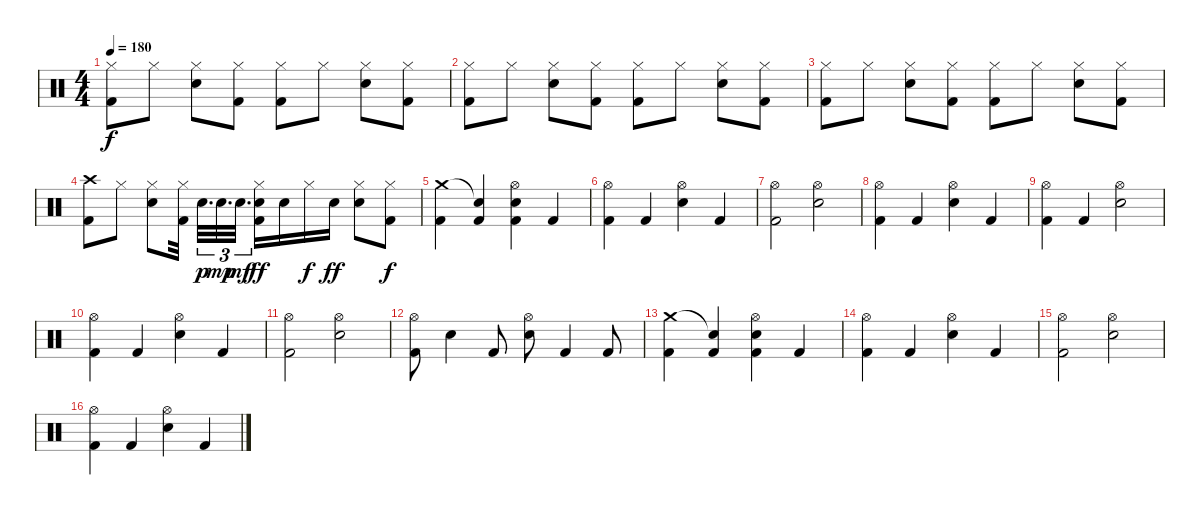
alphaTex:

\track (" " " ") {instrument percussion}
\staff {score}
\articulation defaults
\ts (4 4)
\tempo 180
\clef neutral
\ks c
("Hi-Hat (closed)" "Kick (hit) 2").8{dy f} "Hi-Hat (closed)".8 ("Hi-Hat (closed)" "Electric Snare (hit)").8 ("Hi-Hat (closed)" "Kick (hit) 2").8 ("Hi-Hat (closed)" "Kick (hit) 2").8 "Hi-Hat (closed)".8 ("Hi-Hat (closed)" "Electric Snare (hit)").8 ("Hi-Hat (closed)" "Kick (hit) 2").8 |
("Hi-Hat (closed)" "Kick (hit) 2").8 "Hi-Hat (closed)".8 ("Hi-Hat (closed)" "Electric Snare (hit)").8 ("Hi-Hat (closed)" "Kick (hit) 2").8 ("Hi-Hat (closed)" "Kick (hit) 2").8 "Hi-Hat (closed)".8 ("Hi-Hat (closed)" "Electric Snare (hit)").8 ("Hi-Hat (closed)" "Kick (hit) 2").8 |
("Hi-Hat (closed)" "Kick (hit) 2").8 "Hi-Hat (closed)".8 ("Hi-Hat (closed)" "Electric Snare (hit)").8 ("Hi-Hat (closed)" "Kick (hit) 2").8 ("Hi-Hat (closed)" "Kick (hit) 2").8 "Hi-Hat (closed)".8 ("Hi-Hat (closed)" "Electric Snare (hit)").8 ("Hi-Hat (closed)" "Kick (hit) 2").8 |
("Crash high (hit)" "Kick (hit) 2").8 "Hi-Hat (closed)".8 ("Hi-Hat (closed)" "Electric Snare (hit)").8 ("Hi-Hat (closed)" "Kick (hit) 2").32{beam splitsecondary} "Electric Snare (hit)".32{d tu (3 2) dy p} "Electric Snare (hit)".32{d tu (3 2) dy mp} "Electric Snare (hit)".32{d tu (3 2) dy mf} ("Hi-Hat (closed)" "Electric Snare (hit)" "Kick (hit) 2").16{dy ff} "Electric Snare (hit)".16 "Hi-Hat (closed)".16{dy f} "Electric Snare (hit)".16{dy ff} ("Hi-Hat (closed)" "Electric Snare (hit)").8 ("Hi-Hat (closed)" "Kick (hit) 2").8{dy f} |
("Crash medium (hit)" "Kick (hit) 2").4 ("Snare (hit)"{t} "Kick (hit) 2").4 ("Hi-Hat (open)" "Electric Snare (hit)" "Kick (hit) 2").4 "Kick (hit) 2".4 |
("Hi-Hat (open)" "Kick (hit) 2").4 "Kick (hit) 2".4 ("Hi-Hat (open)" "Electric Snare (hit)").4 "Kick (hit) 2".4 |
("Hi-Hat (open)" "Kick (hit) 2").2 ("Hi-Hat (open)" "Electric Snare (hit)").2 |
("Hi-Hat (open)" "Kick (hit) 2").4 "Kick (hit) 2".4 ("Hi-Hat (open)" "Electric Snare (hit)").4 "Kick (hit) 2".4 |
("Hi-Hat (open)" "Kick (hit) 2").4 "Kick (hit) 2".4 ("Hi-Hat (open)" "Electric Snare (hit)").2 |
("Hi-Hat (open)" "Kick (hit) 2").4 "Kick (hit) 2".4 ("Hi-Hat (open)" "Electric Snare (hit)").4 "Kick (hit) 2".4 |
("Hi-Hat (open)" "Kick (hit) 2").2 ("Hi-Hat (open)" "Electric Snare (hit)").2 |
("Hi-Hat (open)" "Kick (hit) 2").8 "Electric Snare (hit)".4 "Kick (hit) 2".8 ("Hi-Hat (open)" "Electric Snare (hit)").8 "Kick (hit) 2".4 "Kick (hit) 2".8 |
("Crash medium (hit)" "Kick (hit) 2").4 ("Snare (hit)"{t} "Kick (hit) 2").4 ("Hi-Hat (open)" "Electric Snare (hit)" "Kick (hit) 2").4 "Kick (hit) 2".4 |
("Hi-Hat (open)" "Kick (hit) 2").4 "Kick (hit) 2".4 ("Hi-Hat (open)" "Electric Snare (hit)").4 "Kick (hit) 2".4 |
("Hi-Hat (open)" "Kick (hit) 2").2 ("Hi-Hat (open)" "Electric Snare (hit)").2 |
("Hi-Hat (open)" "Kick (hit) 2").4 "Kick (hit) 2".4 ("Hi-Hat (open)" "Electric Snare (hit)").4 "Kick (hit) 2".4
